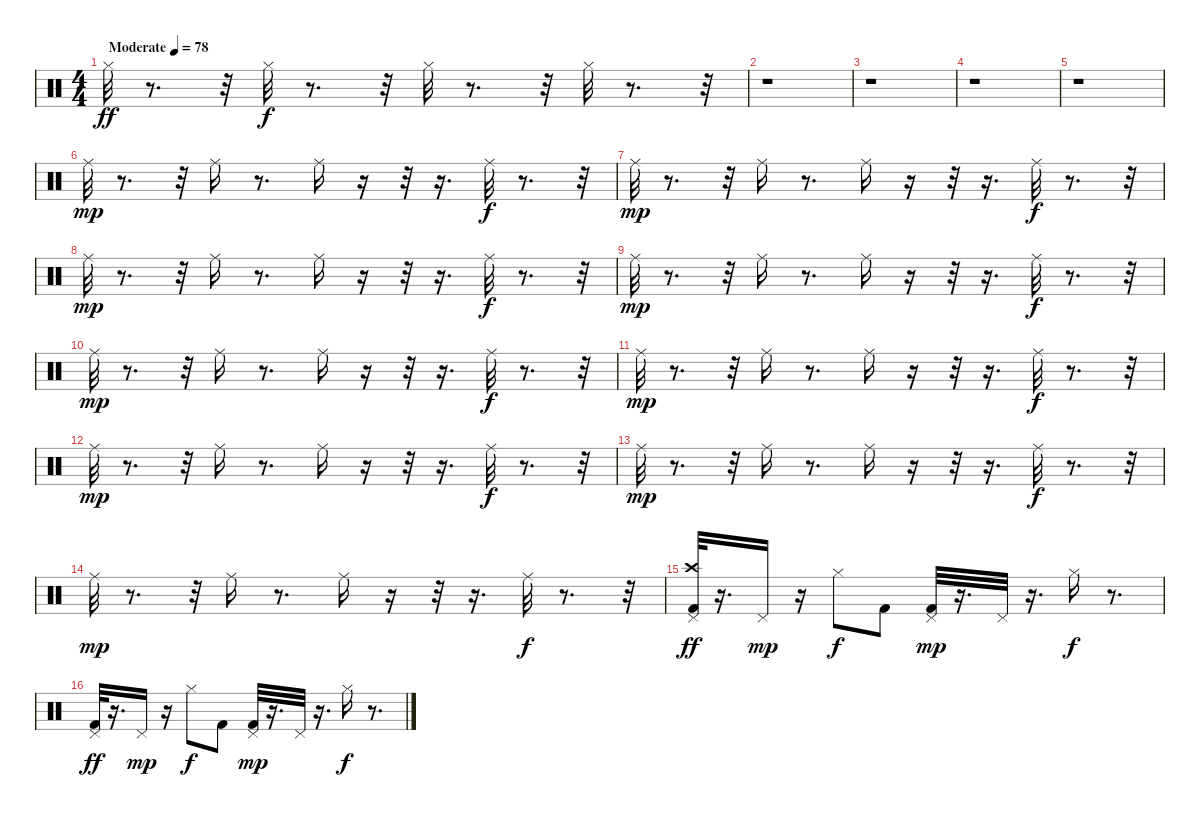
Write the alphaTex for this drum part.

\track "" {instrument percussion}
\staff {score}
\articulation defaults
\ts (4 4)
\tempo (78 "Moderate")
\clef neutral
\ks c "Hi-Hat (closed)".32{dy ff}
r.8{d} r.32 "Hi-Hat (closed)".32{dy f} r.8{d} r.32 "Hi-Hat (closed)".32 r.8{d} r.32 "Hi-Hat (closed)".32 r.8{d} r.32 |
r.1 |
r.1 |
r.1 |
r.1 |
"Ride (middle)".32{dy mp} r.8{d} r.32 "Ride (middle)".16 r.8{d} "Ride (middle)".16 r.16 r.32 r.16{d} "Ride (middle)".32{dy f} r.8{d} r.32 |
"Ride (middle)".32{dy mp} r.8{d} r.32 "Ride (middle)".16 r.8{d} "Ride (middle)".16 r.16 r.32 r.16{d} "Ride (middle)".32{dy f} r.8{d} r.32 |
"Ride (middle)".32{dy mp} r.8{d} r.32 "Ride (middle)".16 r.8{d} "Ride (middle)".16 r.16 r.32 r.16{d} "Ride (middle)".32{dy f} r.8{d} r.32 |
"Ride (middle)".32{dy mp} r.8{d} r.32 "Ride (middle)".16 r.8{d} "Ride (middle)".16 r.16 r.32 r.16{d} "Ride (middle)".32{dy f} r.8{d} r.32 |
"Ride (middle)".32{dy mp} r.8{d} r.32 "Ride (middle)".16 r.8{d} "Ride (middle)".16 r.16 r.32 r.16{d} "Ride (middle)".32{dy f} r.8{d} r.32 |
"Ride (middle)".32{dy mp} r.8{d} r.32 "Ride (middle)".16 r.8{d} "Ride (middle)".16 r.16 r.32 r.16{d} "Ride (middle)".32{dy f} r.8{d} r.32 |
"Ride (middle)".32{dy mp} r.8{d} r.32 "Ride (middle)".16 r.8{d} "Ride (middle)".16 r.16 r.32 r.16{d} "Ride (middle)".32{dy f} r.8{d} r.32 |
"Ride (middle)".32{dy mp} r.8{d} r.32 "Ride (middle)".16 r.8{d} "Ride (middle)".16 r.16 r.32 r.16{d} "Ride (middle)".32{dy f} r.8{d} r.32 |
"Ride (middle)".32{dy mp} r.8{d} r.32 "Ride (middle)".16 r.8{d} "Ride (middle)".16 r.16 r.32 r.16{d} "Ride (middle)".32{dy f} r.8{d} r.32 |
("Pedal Hi-Hat (hit)" "Crash high (hit)" "Kick (hit) 2").32{dy ff} r.16{d} "Pedal Hi-Hat (hit)".16{dy mp} r.16 "Hi-Hat (closed)".8{dy f} "Kick (hit) 2".8 ("Pedal Hi-Hat (hit)" "Kick (hit) 2").32{dy mp} r.16{d} "Pedal Hi-Hat (hit)".32 r.16{d} "Hi-Hat (closed)".16{dy f} r.8{d} |
("Pedal Hi-Hat (hit)" "Kick (hit) 2").32{dy ff} r.16{d} "Pedal Hi-Hat (hit)".16{dy mp} r.16 "Hi-Hat (closed)".8{dy f} "Kick (hit) 2".8 ("Pedal Hi-Hat (hit)" "Kick (hit) 2").32{dy mp} r.16{d} "Pedal Hi-Hat (hit)".32 r.16{d} "Hi-Hat (closed)".16{dy f} r.8{d}
